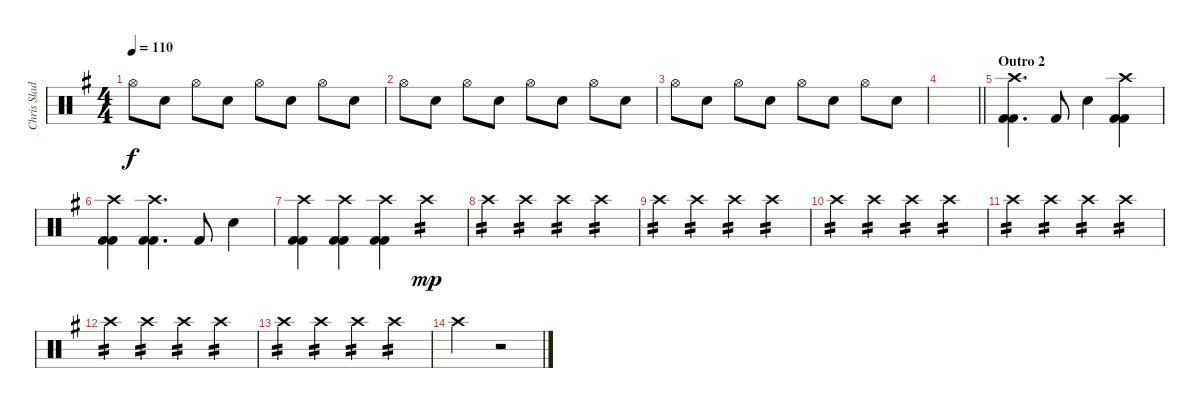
\track ("Chris Slade (Percussion)" "Chris Slad") {instrument percussion}
\staff {score}
\articulation defaults
\ts (4 4)
\tempo 110
\clef neutral
\ks g "Hi-Hat (open)".8{dy f} "Snare (hit) 2".8 "Hi-Hat (open)".8 "Snare (hit) 2".8 "Hi-Hat (open)".8 "Snare (hit) 2".8 "Hi-Hat (open)".8 "Snare (hit) 2".8
|
"Hi-Hat (open)".8 "Snare (hit) 2".8 "Hi-Hat (open)".8 "Snare (hit) 2".8 "Hi-Hat (open)".8 "Snare (hit) 2".8 "Hi-Hat (open)".8 "Snare (hit) 2".8 |
"Hi-Hat (open)".8 "Snare (hit) 2".8 "Hi-Hat (open)".8 "Snare (hit) 2".8 "Hi-Hat (open)".8 "Snare (hit) 2".8 "Hi-Hat (open)".8 "Snare (hit) 2".8 |
\barLineRight lightlight
|
\section ("" "Outro 2")
("Crash high (hit)" "Kick (hit) 2" "Kick (hit) 2").4{d} "Kick (hit) 2".8 "Snare (hit) 2".4 ("Crash high (hit)" "Kick (hit) 2" "Kick (hit) 2").4 |
("Crash high (hit)" "Kick (hit) 2" "Kick (hit) 2").4 ("Crash high (hit)" "Kick (hit) 2" "Kick (hit) 2").4{d} "Kick (hit) 2".8 "Snare (hit) 2".4 |
("Crash high (hit)" "Kick (hit) 2" "Kick (hit) 2").4 ("Crash high (hit)" "Kick (hit) 2" "Kick (hit) 2").4 ("Crash high (hit)" "Kick (hit) 2" "Kick (hit) 2").4 "Crash high (hit)".4{tp 2 dy mp} |
"Crash high (hit)".4{tp 2} "Crash high (hit)".4{tp 2} "Crash high (hit)".4{tp 2} "Crash high (hit)".4{tp 2} |
"Crash high (hit)".4{tp 2} "Crash high (hit)".4{tp 2} "Crash high (hit)".4{tp 2} "Crash high (hit)".4{tp 2} |
"Crash high (hit)".4{tp 2} "Crash high (hit)".4{tp 2} "Crash high (hit)".4{tp 2} "Crash high (hit)".4{tp 2} |
"Crash high (hit)".4{tp 2} "Crash high (hit)".4{tp 2} "Crash high (hit)".4{tp 2} "Crash high (hit)".4{tp 2} |
"Crash high (hit)".4{tp 2} "Crash high (hit)".4{tp 2} "Crash high (hit)".4{tp 2} "Crash high (hit)".4{tp 2} |
"Crash high (hit)".4{tp 2} "Crash high (hit)".4{tp 2} "Crash high (hit)".4{tp 2} "Crash high (hit)".4{tp 2} |
"Crash high (hit)".2 r.2
